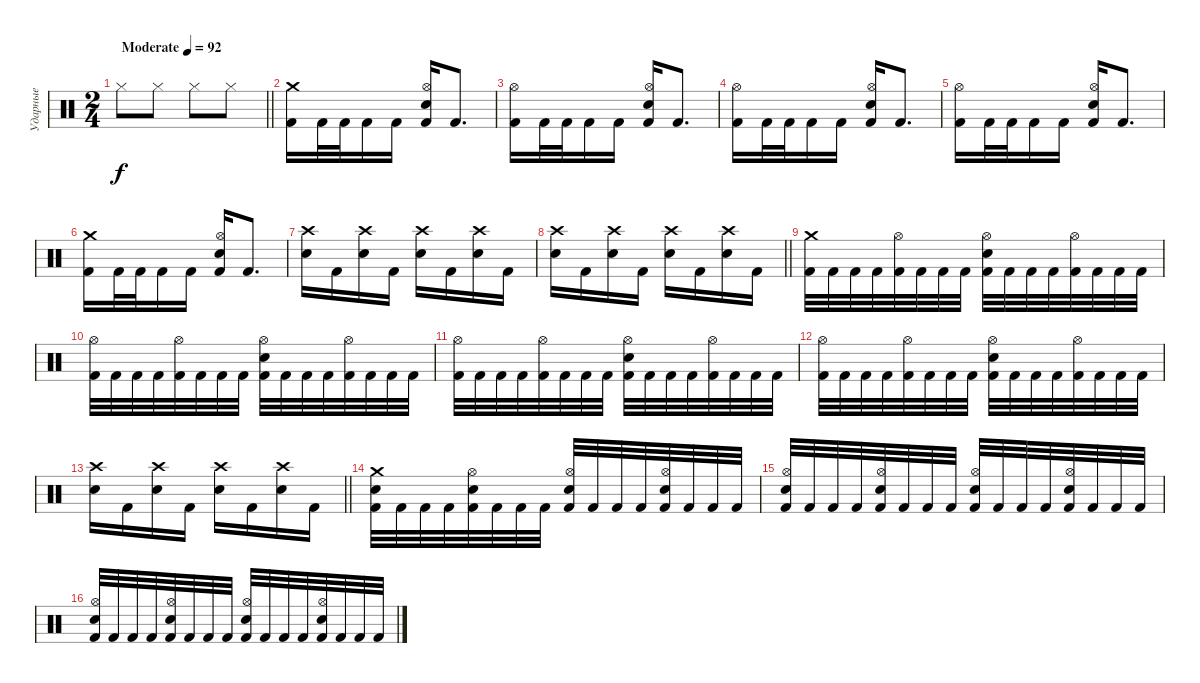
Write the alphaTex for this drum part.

\track ("Ударные" "Ударные") {instrument percussion}
\staff {score}
\articulation defaults
\ts (2 4)
\tempo (92 "Moderate")
\clef neutral
\barLineRight lightlight
\ks c "Hi-Hat (closed)".8{dy f} "Hi-Hat (closed)".8 "Hi-Hat (closed)".8 "Hi-Hat (closed)".8
|
\section ("" "")
("Crash medium (hit)" "Kick (hit) 2").16 "Kick (hit) 2".32 "Kick (hit) 2".32 "Kick (hit) 2".16 "Kick (hit) 2".16 ("Hi-Hat (open)" "Electric Snare (hit)" "Kick (hit) 2").16 "Kick (hit) 2".8{d} |
("Hi-Hat (open)" "Kick (hit) 2").16 "Kick (hit) 2".32 "Kick (hit) 2".32 "Kick (hit) 2".16 "Kick (hit) 2".16 ("Hi-Hat (open)" "Electric Snare (hit)" "Kick (hit) 2").16 "Kick (hit) 2".8{d} |
("Hi-Hat (open)" "Kick (hit) 2").16 "Kick (hit) 2".32 "Kick (hit) 2".32 "Kick (hit) 2".16 "Kick (hit) 2".16 ("Hi-Hat (open)" "Electric Snare (hit)" "Kick (hit) 2").16 "Kick (hit) 2".8{d} |
("Hi-Hat (open)" "Kick (hit) 2").16 "Kick (hit) 2".32 "Kick (hit) 2".32 "Kick (hit) 2".16 "Kick (hit) 2".16 ("Hi-Hat (open)" "Electric Snare (hit)" "Kick (hit) 2").16 "Kick (hit) 2".8{d} |
("Crash medium (hit)" "Kick (hit) 2").16 "Kick (hit) 2".32 "Kick (hit) 2".32 "Kick (hit) 2".16 "Kick (hit) 2".16 ("Hi-Hat (open)" "Electric Snare (hit)" "Kick (hit) 2").16 "Kick (hit) 2".8{d} |
("Crash high (hit)" "Electric Snare (hit)").16 "Kick (hit) 2".16 ("Crash high (hit)" "Electric Snare (hit)").16 "Kick (hit) 2".16 ("Crash high (hit)" "Electric Snare (hit)").16 "Kick (hit) 2".16 ("Crash high (hit)" "Electric Snare (hit)").16 "Kick (hit) 2".16 |
\barLineRight lightlight
("Crash high (hit)" "Electric Snare (hit)").16 "Kick (hit) 2".16 ("Crash high (hit)" "Electric Snare (hit)").16 "Kick (hit) 2".16 ("Crash high (hit)" "Electric Snare (hit)").16 "Kick (hit) 2".16 ("Crash high (hit)" "Electric Snare (hit)").16 "Kick (hit) 2".16 |
\section ("" "")
("Crash medium (hit)" "Kick (hit) 2").32 "Kick (hit) 2".32 "Kick (hit) 2".32 "Kick (hit) 2".32 ("Hi-Hat (open)" "Kick (hit) 2").32 "Kick (hit) 2".32 "Kick (hit) 2".32 "Kick (hit) 2".32 ("Hi-Hat (open)" "Electric Snare (hit)" "Kick (hit) 2").32 "Kick (hit) 2".32 "Kick (hit) 2".32 "Kick (hit) 2".32 ("Hi-Hat (open)" "Kick (hit) 2").32 "Kick (hit) 2".32 "Kick (hit) 2".32 "Kick (hit) 2".32 |
("Hi-Hat (open)" "Kick (hit) 2").32 "Kick (hit) 2".32 "Kick (hit) 2".32 "Kick (hit) 2".32 ("Hi-Hat (open)" "Kick (hit) 2").32 "Kick (hit) 2".32 "Kick (hit) 2".32 "Kick (hit) 2".32 ("Hi-Hat (open)" "Electric Snare (hit)" "Kick (hit) 2").32 "Kick (hit) 2".32 "Kick (hit) 2".32 "Kick (hit) 2".32 ("Hi-Hat (open)" "Kick (hit) 2").32 "Kick (hit) 2".32 "Kick (hit) 2".32 "Kick (hit) 2".32 |
("Hi-Hat (open)" "Kick (hit) 2").32 "Kick (hit) 2".32 "Kick (hit) 2".32 "Kick (hit) 2".32 ("Hi-Hat (open)" "Kick (hit) 2").32 "Kick (hit) 2".32 "Kick (hit) 2".32 "Kick (hit) 2".32 ("Hi-Hat (open)" "Electric Snare (hit)" "Kick (hit) 2").32 "Kick (hit) 2".32 "Kick (hit) 2".32 "Kick (hit) 2".32 ("Hi-Hat (open)" "Kick (hit) 2").32 "Kick (hit) 2".32 "Kick (hit) 2".32 "Kick (hit) 2".32 |
("Hi-Hat (open)" "Kick (hit) 2").32 "Kick (hit) 2".32 "Kick (hit) 2".32 "Kick (hit) 2".32 ("Hi-Hat (open)" "Kick (hit) 2").32 "Kick (hit) 2".32 "Kick (hit) 2".32 "Kick (hit) 2".32 ("Hi-Hat (open)" "Electric Snare (hit)" "Kick (hit) 2").32 "Kick (hit) 2".32 "Kick (hit) 2".32 "Kick (hit) 2".32 ("Hi-Hat (open)" "Kick (hit) 2").32 "Kick (hit) 2".32 "Kick (hit) 2".32 "Kick (hit) 2".32 |
\barLineRight lightlight
("Crash high (hit)" "Electric Snare (hit)").16 "Kick (hit) 2".16 ("Crash high (hit)" "Electric Snare (hit)").16 "Kick (hit) 2".16 ("Crash high (hit)" "Electric Snare (hit)").16 "Kick (hit) 2".16 ("Crash high (hit)" "Electric Snare (hit)").16 "Kick (hit) 2".16 |
\section ("" "")
("Crash medium (hit)" "Electric Snare (hit)" "Kick (hit) 2").32 "Kick (hit) 2".32 "Kick (hit) 2".32 "Kick (hit) 2".32 ("Hi-Hat (open)" "Electric Snare (hit)" "Kick (hit) 2").32 "Kick (hit) 2".32 "Kick (hit) 2".32 "Kick (hit) 2".32 ("Hi-Hat (open)" "Electric Snare (hit)" "Kick (hit) 2").32 "Kick (hit) 2".32 "Kick (hit) 2".32 "Kick (hit) 2".32 ("Hi-Hat (open)" "Electric Snare (hit)" "Kick (hit) 2").32 "Kick (hit) 2".32 "Kick (hit) 2".32 "Kick (hit) 2".32 |
("Hi-Hat (open)" "Electric Snare (hit)" "Kick (hit) 2").32 "Kick (hit) 2".32 "Kick (hit) 2".32 "Kick (hit) 2".32 ("Hi-Hat (open)" "Electric Snare (hit)" "Kick (hit) 2").32 "Kick (hit) 2".32 "Kick (hit) 2".32 "Kick (hit) 2".32 ("Hi-Hat (open)" "Electric Snare (hit)" "Kick (hit) 2").32 "Kick (hit) 2".32 "Kick (hit) 2".32 "Kick (hit) 2".32 ("Hi-Hat (open)" "Electric Snare (hit)" "Kick (hit) 2").32 "Kick (hit) 2".32 "Kick (hit) 2".32 "Kick (hit) 2".32 |
("Hi-Hat (open)" "Electric Snare (hit)" "Kick (hit) 2").32 "Kick (hit) 2".32 "Kick (hit) 2".32 "Kick (hit) 2".32 ("Hi-Hat (open)" "Electric Snare (hit)" "Kick (hit) 2").32 "Kick (hit) 2".32 "Kick (hit) 2".32 "Kick (hit) 2".32 ("Hi-Hat (open)" "Electric Snare (hit)" "Kick (hit) 2").32 "Kick (hit) 2".32 "Kick (hit) 2".32 "Kick (hit) 2".32 ("Hi-Hat (open)" "Electric Snare (hit)" "Kick (hit) 2").32 "Kick (hit) 2".32 "Kick (hit) 2".32 "Kick (hit) 2".32
